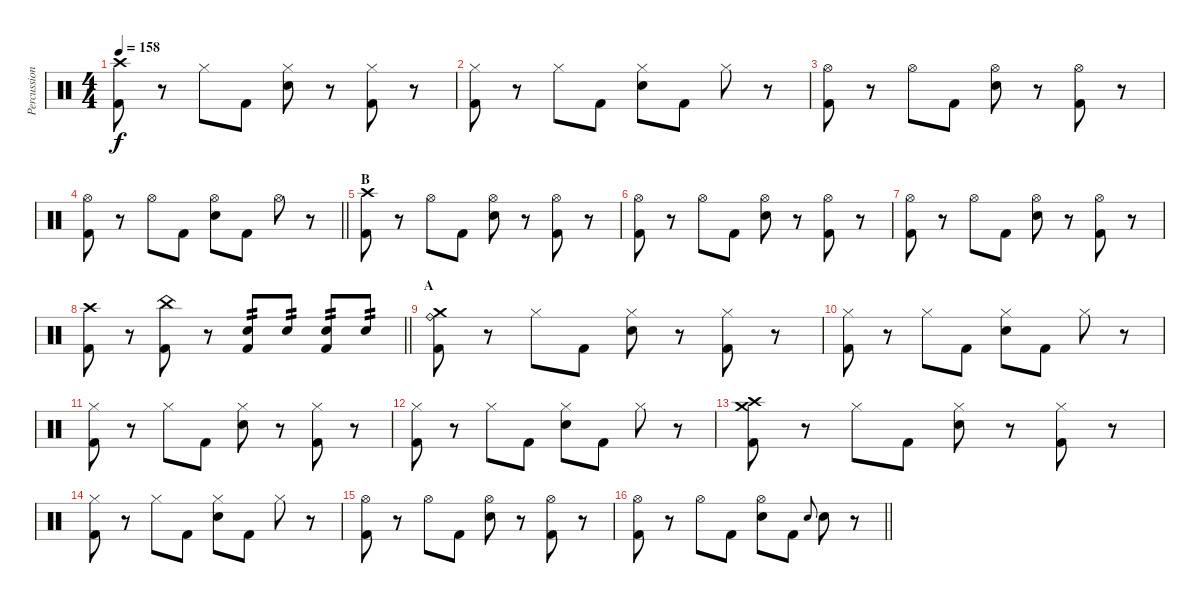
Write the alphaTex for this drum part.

\track ("Percussion" "Percussion") {instrument percussion}
\staff {score}
\articulation defaults
\ts (4 4)
\tempo 158
\clef neutral
\ks c
("Crash high (hit)" "Kick (hit) 2").8{dy f} r.8 "Hi-Hat (closed)".8 "Kick (hit) 2".8 ("Hi-Hat (closed)" "Snare (hit) 2").8 r.8 ("Hi-Hat (closed)" "Kick (hit) 2").8 r.8 |
("Hi-Hat (closed)" "Kick (hit) 2").8 r.8 "Hi-Hat (closed)".8 "Kick (hit) 2".8 ("Hi-Hat (closed)" "Snare (hit) 2").8 "Kick (hit) 2".8 "Hi-Hat (closed)".8 r.8 |
("Hi-Hat (open)" "Kick (hit) 2").8 r.8 "Hi-Hat (open)".8 "Kick (hit) 2".8 ("Hi-Hat (open)" "Snare (hit) 2").8 r.8 ("Hi-Hat (open)" "Kick (hit) 2").8 r.8 |
\barLineRight lightlight
("Hi-Hat (open)" "Kick (hit) 2").8 r.8 "Hi-Hat (open)".8 "Kick (hit) 2".8 ("Hi-Hat (open)" "Snare (hit) 2").8 "Kick (hit) 2".8 "Hi-Hat (open)".8 r.8 |
\section ("" "B")
("Crash high (hit)" "Kick (hit) 2").8 r.8 "Hi-Hat (open)".8 "Kick (hit) 2".8 ("Hi-Hat (open)" "Snare (hit) 2").8 r.8 ("Hi-Hat (open)" "Kick (hit) 2").8 r.8 |
("Hi-Hat (open)" "Kick (hit) 2").8 r.8 "Hi-Hat (open)".8 "Kick (hit) 2".8 ("Hi-Hat (open)" "Snare (hit) 2").8 r.8 ("Hi-Hat (open)" "Kick (hit) 2").8 r.8 |
("Hi-Hat (open)" "Kick (hit) 2").8 r.8 "Hi-Hat (open)".8 "Kick (hit) 2".8 ("Hi-Hat (open)" "Snare (hit) 2").8 r.8 ("Hi-Hat (open)" "Kick (hit) 2").8 r.8 |
\barLineRight lightlight
("Crash high (hit)" "Kick (hit) 2").8 r.8 ("China (hit)" "Kick (hit) 2").8 r.8 ("Snare (hit) 2" "Kick (hit) 2").8{tp 2} "Snare (hit) 2".8{tp 2} ("Snare (hit) 2" "Kick (hit) 2").8{tp 2} "Snare (hit) 2".8{tp 2} |
\section ("" "A")
("Crash medium (hit)" "Ride (bell)" "Kick (hit) 2").8 r.8 "Hi-Hat (closed)".8 "Kick (hit) 2".8 ("Hi-Hat (closed)" "Snare (hit) 2").8 r.8 ("Hi-Hat (closed)" "Kick (hit) 2").8 r.8 |
("Hi-Hat (closed)" "Kick (hit) 2").8 r.8 "Hi-Hat (closed)".8 "Kick (hit) 2".8 ("Hi-Hat (closed)" "Snare (hit) 2").8 "Kick (hit) 2".8 "Hi-Hat (closed)".8 r.8 |
("Hi-Hat (closed)" "Kick (hit) 2").8 r.8 "Hi-Hat (closed)".8 "Kick (hit) 2".8 ("Hi-Hat (closed)" "Snare (hit) 2").8 r.8 ("Hi-Hat (closed)" "Kick (hit) 2").8 r.8 |
("Hi-Hat (closed)" "Kick (hit) 2").8 r.8 "Hi-Hat (closed)".8 "Kick (hit) 2".8 ("Hi-Hat (closed)" "Snare (hit) 2").8 "Kick (hit) 2".8 "Hi-Hat (closed)".8 r.8 |
("Crash high (hit)" "Crash medium (hit)" "Kick (hit) 2").8 r.8 "Hi-Hat (closed)".8 "Kick (hit) 2".8 ("Hi-Hat (closed)" "Snare (hit) 2").8 r.8 ("Hi-Hat (closed)" "Kick (hit) 2").8 r.8 |
("Hi-Hat (closed)" "Kick (hit) 2").8 r.8 "Hi-Hat (closed)".8 "Kick (hit) 2".8 ("Hi-Hat (closed)" "Snare (hit) 2").8 "Kick (hit) 2".8 "Hi-Hat (closed)".8 r.8 |
("Hi-Hat (open)" "Kick (hit) 2").8 r.8 "Hi-Hat (open)".8 "Kick (hit) 2".8 ("Hi-Hat (open)" "Snare (hit) 2").8 r.8 ("Hi-Hat (open)" "Kick (hit) 2").8 r.8 |
\barLineRight lightlight
("Hi-Hat (open)" "Kick (hit) 2").8 r.8 "Hi-Hat (open)".8 "Kick (hit) 2".8 ("Hi-Hat (open)" "Snare (hit) 2").8 "Kick (hit) 2".8 "Snare (hit) 2".8{gr onbeat} "Snare (hit) 2".8 r.8
